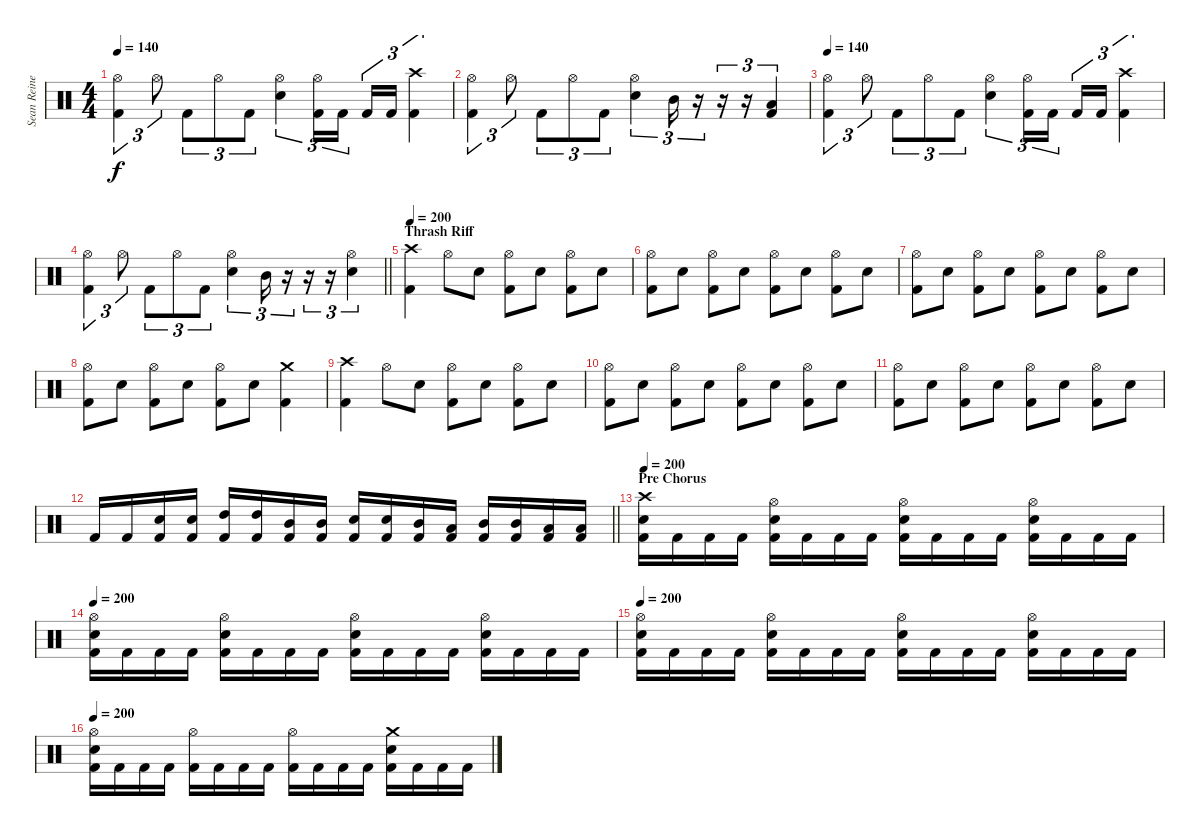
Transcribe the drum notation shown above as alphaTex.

\track ("Sean Reinert" "Sean Reine") {instrument percussion}
\staff {score}
\articulation defaults
\ts (4 4)
\tempo 140
\clef neutral
\ks c
("Hi-Hat (open)" "Kick (hit) 2").4{tu (3 2) dy f} "Hi-Hat (open)".8{tu (3 2)} "Kick (hit) 2".8{tu (3 2)} "Hi-Hat (open)".8{tu (3 2)} "Kick (hit) 2".8{tu (3 2)} ("Hi-Hat (open)" "Electric Snare (hit)").4{tu (3 2)} ("Hi-Hat (open)" "Kick (hit) 2").16{tu (3 2)} "Kick (hit) 2".16{tu (3 2)} "Kick (hit) 2".16{tu (3 2)} "Kick (hit) 2".16{tu (3 2)} ("Crash high (hit)" "Kick (hit) 2").4{tu (3 2)} |
("Hi-Hat (open)" "Kick (hit) 2").4{tu (3 2)} "Hi-Hat (open)".8{tu (3 2)} "Kick (hit) 2".8{tu (3 2)} "Hi-Hat (open)".8{tu (3 2)} "Kick (hit) 2".8{tu (3 2)} ("Hi-Hat (open)" "Electric Snare (hit)").4{tu (3 2)} "Mid Tom (hit)".16{tu (3 2)} r.16{tu (3 2)} r.16{tu (3 2)} r.16{tu (3 2)} ("Low Tom (hit)" "Kick (hit) 2").4{tu (3 2)} |
\tempo 140
("Hi-Hat (open)" "Kick (hit) 2").4{tu (3 2)} "Hi-Hat (open)".8{tu (3 2)} "Kick (hit) 2".8{tu (3 2)} "Hi-Hat (open)".8{tu (3 2)} "Kick (hit) 2".8{tu (3 2)} ("Hi-Hat (open)" "Electric Snare (hit)").4{tu (3 2)} ("Hi-Hat (open)" "Kick (hit) 2").16{tu (3 2)} "Kick (hit) 2".16{tu (3 2)} "Kick (hit) 2".16{tu (3 2)} "Kick (hit) 2".16{tu (3 2)} ("Crash high (hit)" "Kick (hit) 2").4{tu (3 2)} |
\barLineRight lightlight
("Hi-Hat (open)" "Kick (hit) 2").4{tu (3 2)} "Hi-Hat (open)".8{tu (3 2)} "Kick (hit) 2".8{tu (3 2)} "Hi-Hat (open)".8{tu (3 2)} "Kick (hit) 2".8{tu (3 2)} ("Hi-Hat (open)" "Electric Snare (hit)").4{tu (3 2)} "Mid Tom (hit)".16{tu (3 2)} r.16{tu (3 2)} r.16{tu (3 2)} r.16{tu (3 2)} ("Hi-Hat (open)" "Electric Snare (hit)").4{tu (3 2)} |
\section ("" "Thrash Riff")
\tempo 200
("Crash high (hit)" "Kick (hit) 2").4 "Hi-Hat (open)".8 "Electric Snare (hit)".8 ("Hi-Hat (open)" "Kick (hit) 2").8 "Electric Snare (hit)".8 ("Hi-Hat (open)" "Kick (hit) 2").8 "Electric Snare (hit)".8 |
("Hi-Hat (open)" "Kick (hit) 2").8 "Electric Snare (hit)".8 ("Hi-Hat (open)" "Kick (hit) 2").8 "Electric Snare (hit)".8 ("Hi-Hat (open)" "Kick (hit) 2").8 "Electric Snare (hit)".8 ("Hi-Hat (open)" "Kick (hit) 2").8 "Electric Snare (hit)".8 |
("Hi-Hat (open)" "Kick (hit) 2").8 "Electric Snare (hit)".8 ("Hi-Hat (open)" "Kick (hit) 2").8 "Electric Snare (hit)".8 ("Hi-Hat (open)" "Kick (hit) 2").8 "Electric Snare (hit)".8 ("Hi-Hat (open)" "Kick (hit) 2").8 "Electric Snare (hit)".8 |
("Hi-Hat (open)" "Kick (hit) 2").8 "Electric Snare (hit)".8 ("Hi-Hat (open)" "Kick (hit) 2").8 "Electric Snare (hit)".8 ("Hi-Hat (open)" "Kick (hit) 2").8 "Electric Snare (hit)".8 ("Crash medium (hit)" "Kick (hit) 2").4 |
("Crash high (hit)" "Kick (hit) 2").4 "Hi-Hat (open)".8 "Electric Snare (hit)".8 ("Hi-Hat (open)" "Kick (hit) 2").8 "Electric Snare (hit)".8 ("Hi-Hat (open)" "Kick (hit) 2").8 "Electric Snare (hit)".8 |
("Hi-Hat (open)" "Kick (hit) 2").8 "Electric Snare (hit)".8 ("Hi-Hat (open)" "Kick (hit) 2").8 "Electric Snare (hit)".8 ("Hi-Hat (open)" "Kick (hit) 2").8 "Electric Snare (hit)".8 ("Hi-Hat (open)" "Kick (hit) 2").8 "Electric Snare (hit)".8 |
("Hi-Hat (open)" "Kick (hit) 2").8 "Electric Snare (hit)".8 ("Hi-Hat (open)" "Kick (hit) 2").8 "Electric Snare (hit)".8 ("Hi-Hat (open)" "Kick (hit) 2").8 "Electric Snare (hit)".8 ("Hi-Hat (open)" "Kick (hit) 2").8 "Electric Snare (hit)".8 |
\barLineRight lightlight "Kick (hit) 2".16 "Kick (hit) 2".16
("Electric Snare (hit)" "Kick (hit) 2").16 ("Electric Snare (hit)" "Kick (hit) 2").16 ("High Tom (hit)" "Kick (hit) 2").16 ("High Tom (hit)" "Kick (hit) 2").16 ("Mid Tom (hit)" "Kick (hit) 2").16 ("Mid Tom (hit)" "Kick (hit) 2").16 ("Electric Snare (hit)" "Kick (hit) 2").16 ("Electric Snare (hit)" "Kick (hit) 2").16 ("Mid Tom (hit)" "Kick (hit) 2").16 ("Low Tom (hit)" "Kick (hit) 2").16 ("Mid Tom (hit)" "Kick (hit) 2").16 ("Mid Tom (hit)" "Kick (hit) 2").16 ("Low Tom (hit)" "Kick (hit) 2").16 ("Low Tom (hit)" "Kick (hit) 2").16 |
\section ("" "Pre Chorus")
\tempo 200
("Crash high (hit)" "Electric Snare (hit)" "Kick (hit) 2").16 "Kick (hit) 2".16 "Kick (hit) 2".16 "Kick (hit) 2".16 ("Hi-Hat (open)" "Electric Snare (hit)" "Kick (hit) 2").16 "Kick (hit) 2".16 "Kick (hit) 2".16 "Kick (hit) 2".16 ("Hi-Hat (open)" "Electric Snare (hit)" "Kick (hit) 2").16 "Kick (hit) 2".16 "Kick (hit) 2".16 "Kick (hit) 2".16 ("Hi-Hat (open)" "Electric Snare (hit)" "Kick (hit) 2").16 "Kick (hit) 2".16 "Kick (hit) 2".16 "Kick (hit) 2".16 |
\tempo 200
("Hi-Hat (open)" "Electric Snare (hit)" "Kick (hit) 2").16 "Kick (hit) 2".16 "Kick (hit) 2".16 "Kick (hit) 2".16 ("Hi-Hat (open)" "Electric Snare (hit)" "Kick (hit) 2").16 "Kick (hit) 2".16 "Kick (hit) 2".16 "Kick (hit) 2".16 ("Hi-Hat (open)" "Electric Snare (hit)" "Kick (hit) 2").16 "Kick (hit) 2".16 "Kick (hit) 2".16 "Kick (hit) 2".16 ("Hi-Hat (open)" "Electric Snare (hit)" "Kick (hit) 2").16 "Kick (hit) 2".16 "Kick (hit) 2".16 "Kick (hit) 2".16 |
\tempo 200
("Hi-Hat (open)" "Electric Snare (hit)" "Kick (hit) 2").16 "Kick (hit) 2".16 "Kick (hit) 2".16 "Kick (hit) 2".16 ("Hi-Hat (open)" "Electric Snare (hit)" "Kick (hit) 2").16 "Kick (hit) 2".16 "Kick (hit) 2".16 "Kick (hit) 2".16 ("Hi-Hat (open)" "Electric Snare (hit)" "Kick (hit) 2").16 "Kick (hit) 2".16 "Kick (hit) 2".16 "Kick (hit) 2".16 ("Hi-Hat (open)" "Electric Snare (hit)" "Kick (hit) 2").16 "Kick (hit) 2".16 "Kick (hit) 2".16 "Kick (hit) 2".16 |
\tempo 200
("Hi-Hat (open)" "Electric Snare (hit)" "Kick (hit) 2").16 "Kick (hit) 2".16 "Kick (hit) 2".16 "Kick (hit) 2".16 ("Hi-Hat (open)" "Kick (hit) 2").16 "Kick (hit) 2".16 "Kick (hit) 2".16 "Kick (hit) 2".16 ("Hi-Hat (open)" "Kick (hit) 2").16 "Kick (hit) 2".16 "Kick (hit) 2".16 "Kick (hit) 2".16 ("Crash medium (hit)" "Electric Snare (hit)" "Kick (hit) 2").16 "Kick (hit) 2".16 "Kick (hit) 2".16 "Kick (hit) 2".16
